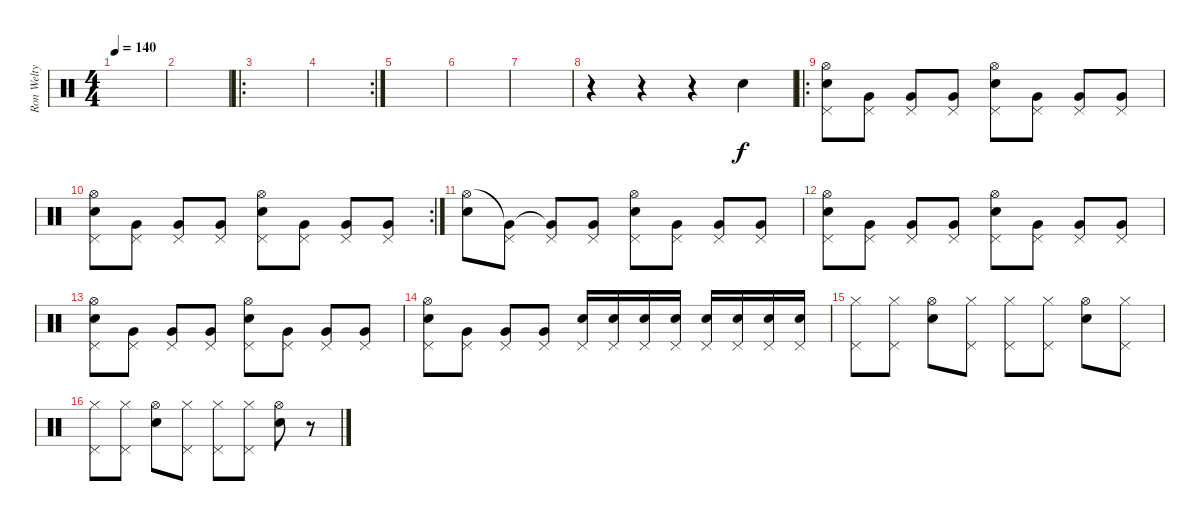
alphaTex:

\track ("Ron Welty - Bateria" "Ron Welty ") {instrument percussion}
\staff {score}
\articulation defaults
\ts (4 4)
\tempo 140
\clef neutral
\ks c
|
|
\ro
|
\rc 2
|
|
|
|
r.4 r.4 r.4 "Electric Snare (hit)".4 |
\ro
("Pedal Hi-Hat (hit)" "Electric Snare (hit)" "Hi-Hat (open)").8 ("Very Low Tom (hit)" "Pedal Hi-Hat (hit)").8 ("Very Low Tom (hit)" "Pedal Hi-Hat (hit)").8 ("Very Low Tom (hit)" "Pedal Hi-Hat (hit)").8 ("Pedal Hi-Hat (hit)" "Electric Snare (hit)" "Hi-Hat (open)").8 ("Very Low Tom (hit)" "Pedal Hi-Hat (hit)").8 ("Very Low Tom (hit)" "Pedal Hi-Hat (hit)").8 ("Very Low Tom (hit)" "Pedal Hi-Hat (hit)").8 |
\rc 2
("Pedal Hi-Hat (hit)" "Electric Snare (hit)" "Hi-Hat (open)").8 ("Very Low Tom (hit)" "Pedal Hi-Hat (hit)").8 ("Very Low Tom (hit)" "Pedal Hi-Hat (hit)").8 ("Very Low Tom (hit)" "Pedal Hi-Hat (hit)").8 ("Pedal Hi-Hat (hit)" "Electric Snare (hit)" "Hi-Hat (open)").8 ("Very Low Tom (hit)" "Pedal Hi-Hat (hit)").8 ("Very Low Tom (hit)" "Pedal Hi-Hat (hit)").8 ("Very Low Tom (hit)" "Pedal Hi-Hat (hit)").8 |
("Hi-Hat (open)" "Electric Snare (hit)").8 ("Very Low Tom (hit)"{t} "Pedal Hi-Hat (hit)").8 ("Very Low Tom (hit)"{t} "Pedal Hi-Hat (hit)").8 ("Very Low Tom (hit)" "Pedal Hi-Hat (hit)").8 ("Pedal Hi-Hat (hit)" "Electric Snare (hit)" "Hi-Hat (open)").8 ("Very Low Tom (hit)" "Pedal Hi-Hat (hit)").8 ("Very Low Tom (hit)" "Pedal Hi-Hat (hit)").8 ("Very Low Tom (hit)" "Pedal Hi-Hat (hit)").8 |
("Pedal Hi-Hat (hit)" "Electric Snare (hit)" "Hi-Hat (open)").8 ("Very Low Tom (hit)" "Pedal Hi-Hat (hit)").8 ("Very Low Tom (hit)" "Pedal Hi-Hat (hit)").8 ("Very Low Tom (hit)" "Pedal Hi-Hat (hit)").8 ("Pedal Hi-Hat (hit)" "Electric Snare (hit)" "Hi-Hat (open)").8 ("Very Low Tom (hit)" "Pedal Hi-Hat (hit)").8 ("Very Low Tom (hit)" "Pedal Hi-Hat (hit)").8 ("Very Low Tom (hit)" "Pedal Hi-Hat (hit)").8 |
("Pedal Hi-Hat (hit)" "Electric Snare (hit)" "Hi-Hat (open)").8 ("Very Low Tom (hit)" "Pedal Hi-Hat (hit)").8 ("Very Low Tom (hit)" "Pedal Hi-Hat (hit)").8 ("Very Low Tom (hit)" "Pedal Hi-Hat (hit)").8 ("Pedal Hi-Hat (hit)" "Electric Snare (hit)" "Hi-Hat (open)").8 ("Very Low Tom (hit)" "Pedal Hi-Hat (hit)").8 ("Very Low Tom (hit)" "Pedal Hi-Hat (hit)").8 ("Very Low Tom (hit)" "Pedal Hi-Hat (hit)").8 |
("Pedal Hi-Hat (hit)" "Electric Snare (hit)" "Hi-Hat (open)").8 ("Pedal Hi-Hat (hit)" "Very Low Tom (hit)").8 ("Pedal Hi-Hat (hit)" "Very Low Tom (hit)").8 ("Pedal Hi-Hat (hit)" "Very Low Tom (hit)").8 ("Pedal Hi-Hat (hit)" "Electric Snare (hit)").16 ("Pedal Hi-Hat (hit)" "Electric Snare (hit)").16 ("Pedal Hi-Hat (hit)" "Electric Snare (hit)").16 ("Pedal Hi-Hat (hit)" "Electric Snare (hit)").16 ("Pedal Hi-Hat (hit)" "Electric Snare (hit)").16 ("Pedal Hi-Hat (hit)" "Electric Snare (hit)").16 ("Pedal Hi-Hat (hit)" "Electric Snare (hit)").16 ("Pedal Hi-Hat (hit)" "Electric Snare (hit)").16 |
("Pedal Hi-Hat (hit)" "Hi-Hat (closed)").8 ("Pedal Hi-Hat (hit)" "Hi-Hat (closed)").8 ("Electric Snare (hit)" "Hi-Hat (open)").8 ("Pedal Hi-Hat (hit)" "Hi-Hat (closed)").8 ("Pedal Hi-Hat (hit)" "Hi-Hat (closed)").8 ("Pedal Hi-Hat (hit)" "Hi-Hat (closed)").8 ("Electric Snare (hit)" "Hi-Hat (open)").8 ("Pedal Hi-Hat (hit)" "Hi-Hat (closed)").8 |
("Pedal Hi-Hat (hit)" "Hi-Hat (closed)").8 ("Pedal Hi-Hat (hit)" "Hi-Hat (closed)").8 ("Electric Snare (hit)" "Hi-Hat (open)").8 ("Pedal Hi-Hat (hit)" "Hi-Hat (closed)").8 ("Pedal Hi-Hat (hit)" "Hi-Hat (closed)").8 ("Pedal Hi-Hat (hit)" "Hi-Hat (closed)").8 ("Electric Snare (hit)" "Hi-Hat (open)").8 r.8
